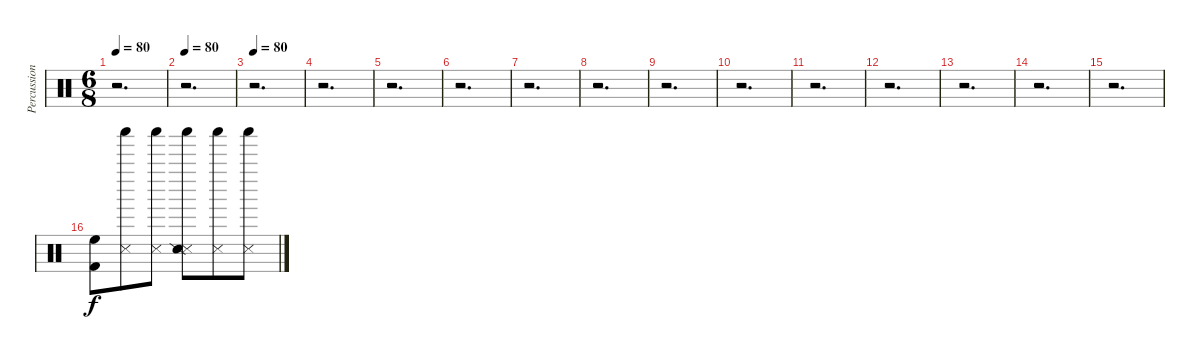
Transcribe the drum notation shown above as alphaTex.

\track ("Percussion" "Percussion") {instrument percussion}
\staff {score}
\articulation defaults
\ts (6 8)
\tempo 80
\clef neutral
\ks c
r.2{d dy f} |
\tempo 80
r.2{d} |
\tempo 80
r.2{d} |
r.2{d} |
r.2{d} |
r.2{d} |
r.2{d} |
r.2{d} |
r.2{d} |
r.2{d} |
r.2{d} |
r.2{d} |
r.2{d} |
r.2{d} |
r.2{d} |
("Kick (hit) 2" "High Floor Tom (hit)").8 ("Snare (side stick) 3" "Shaker (hit)").8 ("Snare (side stick) 3" "Shaker (hit)").8 ("Snare (side stick) 3" "Shaker (hit)" "Snare (side stick) 2").8 ("Snare (side stick) 3" "Shaker (hit)").8 ("Snare (side stick) 3" "Shaker (hit)").8
